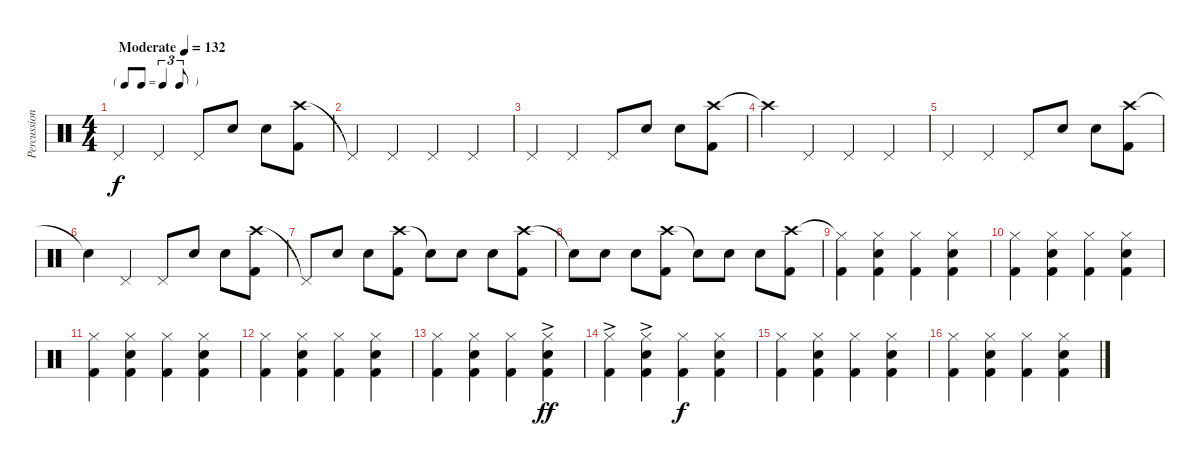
\track ("Percussion" "Percussion") {instrument percussion}
\staff {score}
\articulation defaults
\ts (4 4)
\tf triplet8th
\tempo (132 "Moderate")
\clef neutral
\ks c "Pedal Hi-Hat (hit)".4{dy f} "Pedal Hi-Hat (hit)".4 "Pedal Hi-Hat (hit)".8 "Snare (hit) 2".8 "Snare (hit) 2".8
("Crash high (hit)" "Kick (hit) 2").8 |
"Pedal Hi-Hat (hit)"{t}.4 "Pedal Hi-Hat (hit)".4 "Pedal Hi-Hat (hit)".4 "Pedal Hi-Hat (hit)".4 |
"Pedal Hi-Hat (hit)".4 "Pedal Hi-Hat (hit)".4 "Pedal Hi-Hat (hit)".8 "Snare (hit) 2".8 "Snare (hit) 2".8 ("Crash high (hit)" "Kick (hit) 2").8 |
"Crash high (hit)"{t}.4 "Pedal Hi-Hat (hit)".4 "Pedal Hi-Hat (hit)".4 "Pedal Hi-Hat (hit)".4 |
"Pedal Hi-Hat (hit)".4 "Pedal Hi-Hat (hit)".4 "Pedal Hi-Hat (hit)".8 "Snare (hit) 2".8 "Snare (hit) 2".8 ("Crash high (hit)" "Kick (hit) 2").8 |
"Snare (hit)"{t}.4 "Pedal Hi-Hat (hit)".4 "Pedal Hi-Hat (hit)".8 "Snare (hit) 2".8 "Snare (hit) 2".8 ("Crash high (hit)" "Kick (hit) 2").8 |
"Pedal Hi-Hat (hit)"{t}.8 "Snare (hit) 2".8 "Snare (hit) 2".8 ("Crash high (hit)" "Kick (hit) 2").8 "Snare (hit)"{t}.8 "Snare (hit) 2".8 "Snare (hit) 2".8 ("Crash high (hit)" "Kick (hit) 2").8 |
"Snare (hit)"{t}.8 "Snare (hit) 2".8 "Snare (hit) 2".8 ("Crash high (hit)" "Kick (hit) 2").8 "Snare (hit)"{t}.8 "Snare (hit) 2".8 "Snare (hit) 2".8 ("Crash high (hit)" "Kick (hit) 2").8 |
("Hi-Hat (closed)"{t} "Kick (hit) 2").4 ("Hi-Hat (closed)" "Snare (hit) 2" "Kick (hit) 2").4 ("Hi-Hat (closed)" "Kick (hit) 2").4 ("Hi-Hat (closed)" "Snare (hit) 2" "Kick (hit) 2").4 |
("Hi-Hat (closed)" "Kick (hit) 2").4 ("Hi-Hat (closed)" "Snare (hit) 2" "Kick (hit) 2").4 ("Hi-Hat (closed)" "Kick (hit) 2").4 ("Hi-Hat (closed)" "Snare (hit) 2" "Kick (hit) 2").4 |
("Hi-Hat (closed)" "Kick (hit) 2").4 ("Hi-Hat (closed)" "Snare (hit) 2" "Kick (hit) 2").4 ("Hi-Hat (closed)" "Kick (hit) 2").4 ("Hi-Hat (closed)" "Snare (hit) 2" "Kick (hit) 2").4 |
("Hi-Hat (closed)" "Kick (hit) 2").4 ("Hi-Hat (closed)" "Snare (hit) 2" "Kick (hit) 2").4 ("Hi-Hat (closed)" "Kick (hit) 2").4 ("Hi-Hat (closed)" "Snare (hit) 2" "Kick (hit) 2").4 |
("Hi-Hat (closed)" "Kick (hit) 2").4 ("Hi-Hat (closed)" "Snare (hit) 2" "Kick (hit) 2").4 ("Hi-Hat (closed)" "Kick (hit) 2").4 ("Hi-Hat (closed)"{ac} "Snare (hit) 2" "Kick (hit) 2").4{dy ff} |
("Hi-Hat (closed)"{ac} "Kick (hit) 2").4 ("Hi-Hat (closed)"{ac} "Snare (hit) 2" "Kick (hit) 2").4 ("Hi-Hat (closed)" "Kick (hit) 2").4{dy f} ("Hi-Hat (closed)" "Snare (hit) 2" "Kick (hit) 2").4 |
("Hi-Hat (closed)" "Kick (hit) 2").4 ("Hi-Hat (closed)" "Snare (hit) 2" "Kick (hit) 2").4 ("Hi-Hat (closed)" "Kick (hit) 2").4 ("Hi-Hat (closed)" "Snare (hit) 2" "Kick (hit) 2").4 |
("Hi-Hat (closed)" "Kick (hit) 2").4 ("Hi-Hat (closed)" "Snare (hit) 2" "Kick (hit) 2").4 ("Hi-Hat (closed)" "Kick (hit) 2").4 ("Hi-Hat (closed)" "Snare (hit) 2" "Kick (hit) 2").4
